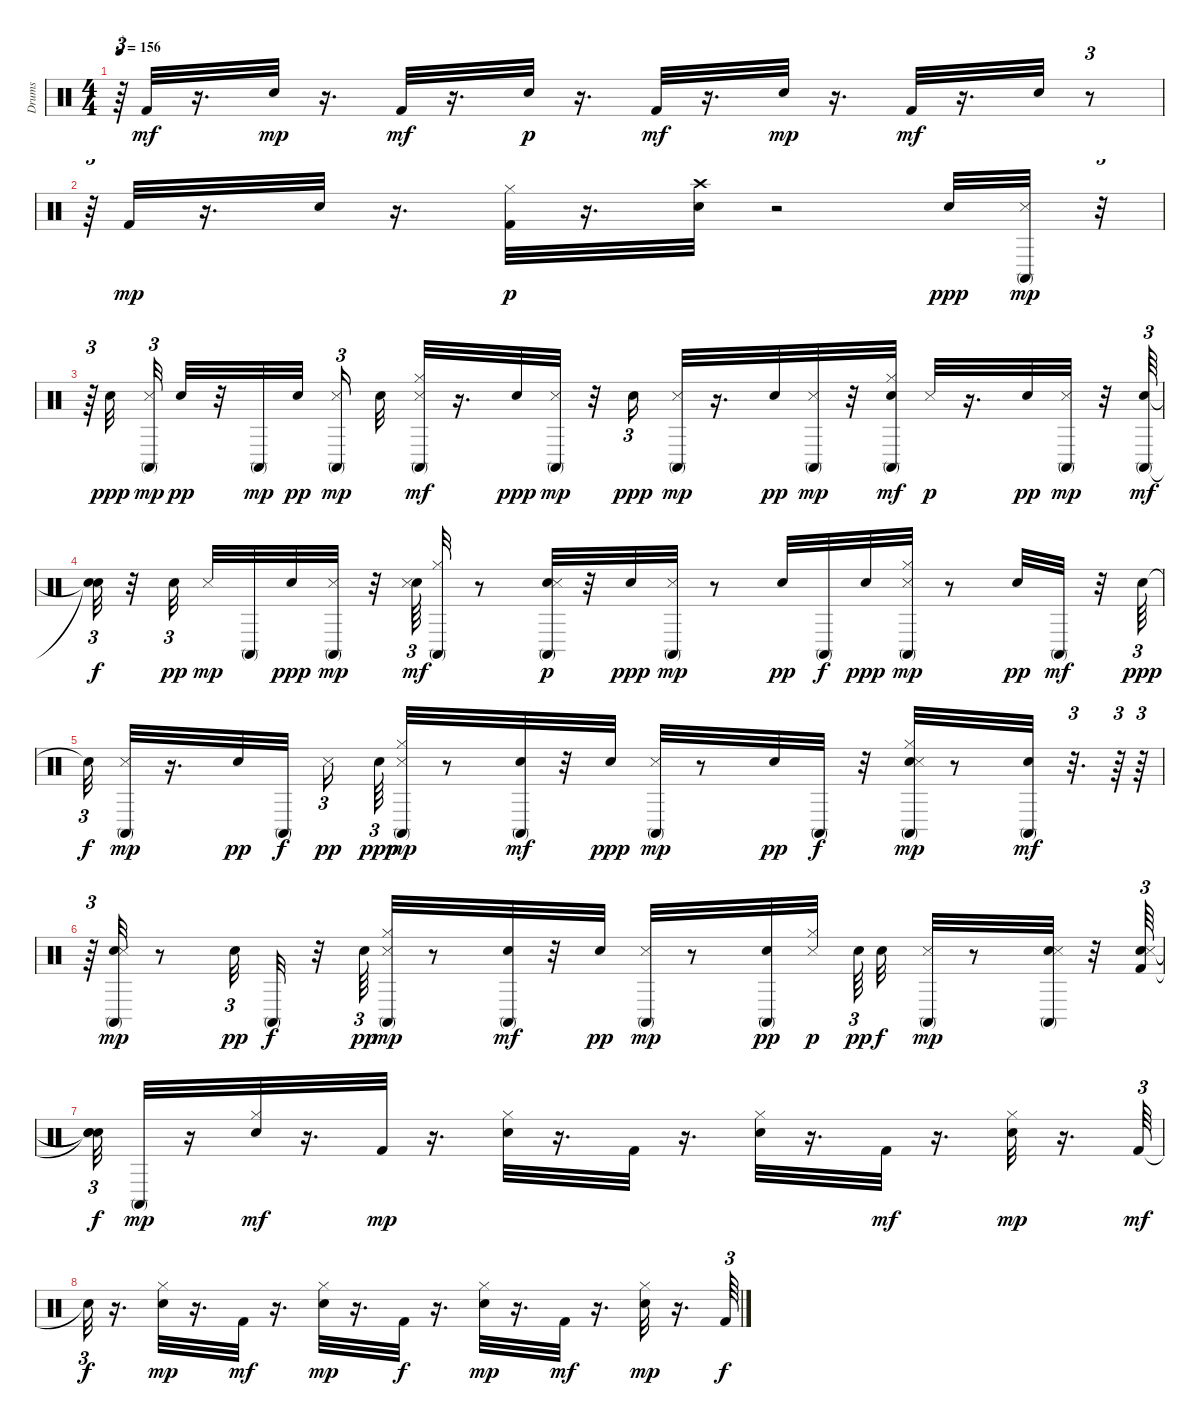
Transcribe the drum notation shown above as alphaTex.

\track ("Drums" "Drums") {instrument percussion}
\staff {score}
\articulation defaults
\ts (4 4)
\tempo 156
\clef neutral
\ks c
r.64{tu (3 2) dy mp} "Kick (hit) 2".32{dy mf} r.16{d} "Electric Snare (hit)".32{dy mp} r.16{d} "Kick (hit) 2".32{dy mf} r.16{d} "Electric Snare (hit)".32{dy p} r.16{d} "Kick (hit) 2".32{dy mf} r.16{d} "Electric Snare (hit)".32{dy mp} r.16{d} "Kick (hit) 2".32{dy mf} r.16{d} "Electric Snare (hit)".32 r.8{tu (3 2)} |
r.64{tu (3 2)} "Kick (hit) 2".32{dy mp} r.16{d} "Electric Snare (hit)".32 r.16{d} ("Hi-Hat (closed)" "Kick (hit) 2").32{dy p} r.16{d} ("Electric Snare (hit)" "Crash high (hit)").32 r.2 "Hand Clap (hit)".32{dy ppp} ("Snare (side stick) 3" "Conga high (mute)").32{dy mp} r.32{tu (3 2)} |
r.64{tu (3 2)} "Hand Clap (hit)".32{dy ppp beam splitsecondary} ("Snare (side stick) 3" "Conga high (mute)").32{tu (3 2) dy mp} "Hand Clap (hit)".32{dy pp} r.32 "Conga high (mute)".32{dy mp} "Hand Clap (hit)".32{dy pp beam splitsecondary} ("Conga high (mute)" "Snare (side stick) 3").16{tu (3 2) dy mp} "Hand Clap (hit)".32 ("Hi-Hat (closed)" "Conga high (mute)" "Snare (side stick) 3").32{dy mf} r.16{d} "Hand Clap (hit)".32{dy ppp} ("Snare (side stick) 3" "Conga high (mute)").32{dy mp} r.32 "Hand Clap (hit)".16{tu (3 2) dy ppp} ("Snare (side stick) 3" "Conga high (mute)").32{dy mp} r.16{d} "Hand Clap (hit)".32{dy pp} ("Snare (side stick) 3" "Conga high (mute)").32{dy mp} r.32 ("Hand Clap (hit)" "Hi-Hat (closed)" "Conga high (mute)").32{dy mf} "Snare (side stick) 3".32{dy p} r.16{d} "Hand Clap (hit)".32{dy pp} ("Snare (side stick) 3" "Conga high (mute)").32{dy mp} r.32 ("Hand Clap (hit)" "Conga high (mute)").64{tu (3 2) dy mf} |
("Snare (hit)"{t} "Snare (hit)"{t}).32{tu (3 2) dy f} r.32 "Hand Clap (hit)".32{tu (3 2) dy pp beam splitsecondary} "Snare (side stick) 3".32{dy mp} "Conga high (mute)".32 "Hand Clap (hit)".32{dy ppp} ("Snare (side stick) 3" "Conga high (mute)").32{dy mp} r.32 ("Hand Clap (hit)" "Snare (side stick) 3").64{tu (3 2) dy mf} ("Hi-Hat (closed)" "Conga high (mute)").32 r.8 ("Hand Clap (hit)" "Snare (side stick) 3" "Conga high (mute)").32{dy p} r.32 "Hand Clap (hit)".32{dy ppp} ("Snare (side stick) 3" "Conga high (mute)").32{dy mp} r.8 "Hand Clap (hit)".32{dy pp} "Conga high (mute)".32{dy f} "Hand Clap (hit)".32{dy ppp} ("Snare (side stick) 3" "Hi-Hat (closed)" "Conga high (mute)").32{dy mp} r.8 "Hand Clap (hit)".32{dy pp} "Conga high (mute)".32{dy mf} r.32 "Hand Clap (hit)".64{tu (3 2) dy ppp} |
"Snare (hit)"{t}.32{tu (3 2) dy f} ("Snare (side stick) 3" "Conga high (mute)").32{dy mp} r.16{d} "Hand Clap (hit)".32{dy pp} "Conga high (mute)".32{dy f beam splitsecondary} "Snare (side stick) 3".16{tu (3 2) dy pp} "Hand Clap (hit)".64{tu (3 2) dy ppp} ("Hi-Hat (closed)" "Snare (side stick) 3" "Conga high (mute)").32{dy mp} r.8 ("Hand Clap (hit)" "Conga high (mute)").32{dy mf} r.32 "Hand Clap (hit)".32{dy ppp} ("Snare (side stick) 3" "Conga high (mute)").32{dy mp} r.8 "Hand Clap (hit)".32{dy pp} "Conga high (mute)".32{dy f} r.32 ("Hand Clap (hit)" "Hi-Hat (closed)" "Snare (side stick) 3" "Conga high (mute)").32{dy mp} r.8 ("Hand Clap (hit)" "Conga high (mute)").32{dy mf} r.32{d tu (3 2)} r.64{tu (3 2)} r.64{tu (3 2)} |
r.64{tu (3 2)} ("Hand Clap (hit)" "Snare (side stick) 3" "Conga high (mute)").32{dy mp} r.8 "Hand Clap (hit)".32{tu (3 2) dy pp} "Conga high (mute)".32{dy f} r.32 "Hand Clap (hit)".64{tu (3 2) dy pp} ("Hi-Hat (closed)" "Snare (side stick) 3" "Conga high (mute)").32{dy mp} r.8 ("Hand Clap (hit)" "Conga high (mute)").32{dy mf} r.32 "Hand Clap (hit)".32{dy pp} ("Snare (side stick) 3" "Conga high (mute)").32{dy mp} r.8 ("Hand Clap (hit)" "Conga high (mute)").32{dy pp} ("Snare (side stick) 3" "Hi-Hat (closed)").32{dy p beam splitsecondary} "Hand Clap (hit)".64{tu (3 2) dy pp} "Electric Snare (hit)".32{dy f} ("Snare (side stick) 3" "Conga high (mute)").32{dy mp} r.8 ("Hand Clap (hit)" "Conga high (mute)" "Snare (side stick) 3").32 r.32 ("Kick (hit) 2" "Hand Clap (hit)" "Snare (side stick) 3").64{tu (3 2)} |
("Snare (hit)"{t} "Snare (hit)"{t} "Snare (hit)"{t}).32{tu (3 2) dy f} "Conga high (mute)".32{dy mp} r.16 ("Hi-Hat (closed)" "Electric Snare (hit)").32{dy mf} r.16{d} "Kick (hit) 2".32{dy mp} r.16{d} ("Hi-Hat (closed)" "Electric Snare (hit)").32 r.16{d} "Kick (hit) 2".32 r.16{d} ("Hi-Hat (closed)" "Electric Snare (hit)").32 r.16{d} "Kick (hit) 2".32{dy mf} r.16{d} ("Hi-Hat (closed)" "Electric Snare (hit)").32{dy mp} r.16{d} "Kick (hit) 2".64{tu (3 2) dy mf} |
"Snare (hit)"{t}.32{tu (3 2) dy f} r.16{d} ("Hi-Hat (closed)" "Electric Snare (hit)").32{dy mp} r.16{d} "Kick (hit) 2".32{dy mf} r.16{d} ("Hi-Hat (closed)" "Electric Snare (hit)").32{dy mp} r.16{d} "Kick (hit) 2".32{dy f} r.16{d} ("Hi-Hat (closed)" "Electric Snare (hit)").32{dy mp} r.16{d} "Kick (hit) 2".32{dy mf} r.16{d} ("Hi-Hat (closed)" "Electric Snare (hit)").32{dy mp} r.16{d} "Kick (hit) 2".64{tu (3 2) dy f}
